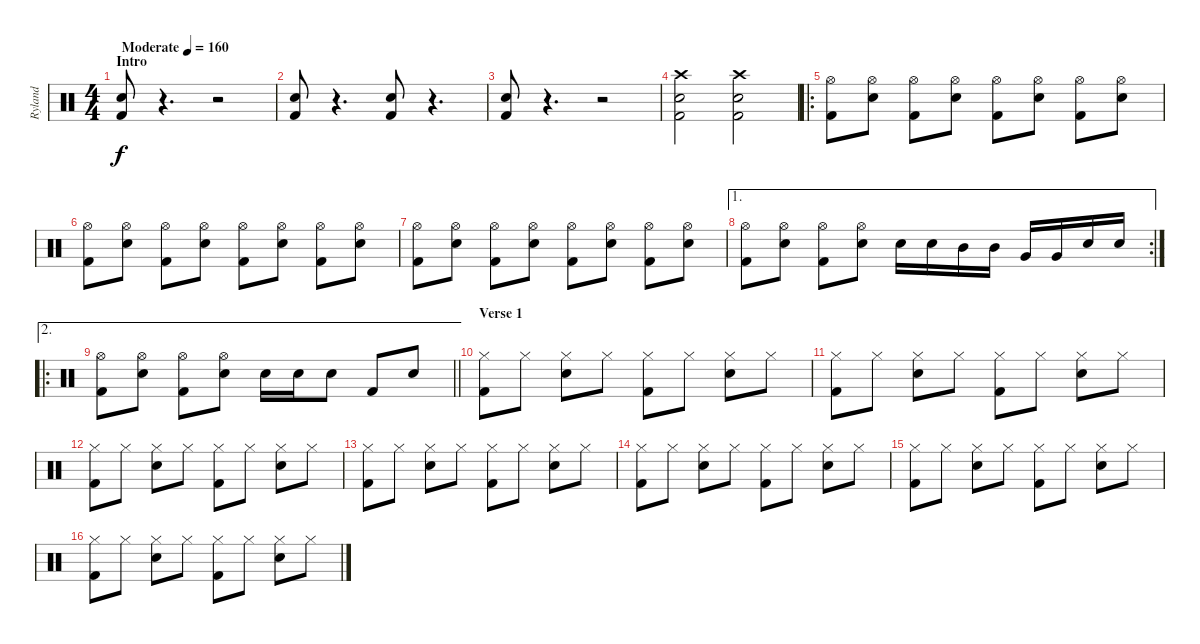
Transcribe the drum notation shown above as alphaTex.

\track ("Ryland" "Ryland") {instrument percussion}
\staff {score}
\articulation defaults
\ts (4 4)
\section ("" "Intro")
\tempo (160 "Moderate")
\clef neutral
\ks c
("Electric Snare (hit)" "Kick (hit) 2").8{dy f} r.4{d} r.2 |
("Electric Snare (hit)" "Kick (hit) 2").8 r.4{d} ("Electric Snare (hit)" "Kick (hit) 2").8 r.4{d} |
("Electric Snare (hit)" "Kick (hit) 2").8 r.4{d} r.2 |
("Crash high (hit)" "Electric Snare (hit)" "Kick (hit) 2").2 ("Crash high (hit)" "Electric Snare (hit)" "Kick (hit) 2").2 |
\ro
("Hi-Hat (open)" "Kick (hit) 2").8 ("Hi-Hat (open)" "Electric Snare (hit)").8 ("Hi-Hat (open)" "Kick (hit) 2").8 ("Hi-Hat (open)" "Electric Snare (hit)").8 ("Hi-Hat (open)" "Kick (hit) 2").8 ("Hi-Hat (open)" "Electric Snare (hit)").8 ("Hi-Hat (open)" "Kick (hit) 2").8 ("Hi-Hat (open)" "Electric Snare (hit)").8 |
("Hi-Hat (open)" "Kick (hit) 2").8 ("Hi-Hat (open)" "Electric Snare (hit)").8 ("Hi-Hat (open)" "Kick (hit) 2").8 ("Hi-Hat (open)" "Electric Snare (hit)").8 ("Hi-Hat (open)" "Kick (hit) 2").8 ("Hi-Hat (open)" "Electric Snare (hit)").8 ("Hi-Hat (open)" "Kick (hit) 2").8 ("Hi-Hat (open)" "Electric Snare (hit)").8 |
("Hi-Hat (open)" "Kick (hit) 2").8 ("Hi-Hat (open)" "Electric Snare (hit)").8 ("Hi-Hat (open)" "Kick (hit) 2").8 ("Hi-Hat (open)" "Electric Snare (hit)").8 ("Hi-Hat (open)" "Kick (hit) 2").8 ("Hi-Hat (open)" "Electric Snare (hit)").8 ("Hi-Hat (open)" "Kick (hit) 2").8 ("Hi-Hat (open)" "Electric Snare (hit)").8 |
\ae 1
\rc 2
("Hi-Hat (open)" "Kick (hit) 2").8 ("Hi-Hat (open)" "Electric Snare (hit)").8 ("Hi-Hat (open)" "Kick (hit) 2").8 ("Hi-Hat (open)" "Electric Snare (hit)").8 "Electric Snare (hit)".16 "Electric Snare (hit)".16 "Mid Tom (hit)".16 "Mid Tom (hit)".16 "Very Low Tom (hit)".16 "Very Low Tom (hit)".16 "Electric Snare (hit)".16 "Electric Snare (hit)".16 |
\ae 2
\ro
\barLineRight lightlight
("Hi-Hat (open)" "Kick (hit) 2").8 ("Hi-Hat (open)" "Electric Snare (hit)").8 ("Hi-Hat (open)" "Kick (hit) 2").8 ("Hi-Hat (open)" "Electric Snare (hit)").8 "Electric Snare (hit)".16 "Electric Snare (hit)".16 "Electric Snare (hit)".8 "Kick (hit) 2".8 "Electric Snare (hit)".8 |
\section ("" "Verse 1")
("Hi-Hat (closed)" "Kick (hit) 2").8 "Hi-Hat (closed)".8 ("Hi-Hat (closed)" "Electric Snare (hit)").8 "Hi-Hat (closed)".8 ("Hi-Hat (closed)" "Kick (hit) 2").8 "Hi-Hat (closed)".8 ("Hi-Hat (closed)" "Electric Snare (hit)").8 "Hi-Hat (closed)".8 |
("Hi-Hat (closed)" "Kick (hit) 2").8 "Hi-Hat (closed)".8 ("Hi-Hat (closed)" "Electric Snare (hit)").8 "Hi-Hat (closed)".8 ("Hi-Hat (closed)" "Kick (hit) 2").8 "Hi-Hat (closed)".8 ("Hi-Hat (closed)" "Electric Snare (hit)").8 "Hi-Hat (closed)".8 |
("Hi-Hat (closed)" "Kick (hit) 2").8 "Hi-Hat (closed)".8 ("Hi-Hat (closed)" "Electric Snare (hit)").8 "Hi-Hat (closed)".8 ("Hi-Hat (closed)" "Kick (hit) 2").8 "Hi-Hat (closed)".8 ("Hi-Hat (closed)" "Electric Snare (hit)").8 "Hi-Hat (closed)".8 |
("Hi-Hat (closed)" "Kick (hit) 2").8 "Hi-Hat (closed)".8 ("Hi-Hat (closed)" "Electric Snare (hit)").8 "Hi-Hat (closed)".8 ("Hi-Hat (closed)" "Kick (hit) 2").8 "Hi-Hat (closed)".8 ("Hi-Hat (closed)" "Electric Snare (hit)").8 "Hi-Hat (closed)".8 |
("Hi-Hat (closed)" "Kick (hit) 2").8 "Hi-Hat (closed)".8 ("Hi-Hat (closed)" "Electric Snare (hit)").8 "Hi-Hat (closed)".8 ("Hi-Hat (closed)" "Kick (hit) 2").8 "Hi-Hat (closed)".8 ("Hi-Hat (closed)" "Electric Snare (hit)").8 "Hi-Hat (closed)".8 |
("Hi-Hat (closed)" "Kick (hit) 2").8 "Hi-Hat (closed)".8 ("Hi-Hat (closed)" "Electric Snare (hit)").8 "Hi-Hat (closed)".8 ("Hi-Hat (closed)" "Kick (hit) 2").8 "Hi-Hat (closed)".8 ("Hi-Hat (closed)" "Electric Snare (hit)").8 "Hi-Hat (closed)".8 |
("Hi-Hat (closed)" "Kick (hit) 2").8 "Hi-Hat (closed)".8 ("Hi-Hat (closed)" "Electric Snare (hit)").8 "Hi-Hat (closed)".8 ("Hi-Hat (closed)" "Kick (hit) 2").8 "Hi-Hat (closed)".8 ("Hi-Hat (closed)" "Electric Snare (hit)").8 "Hi-Hat (closed)".8
